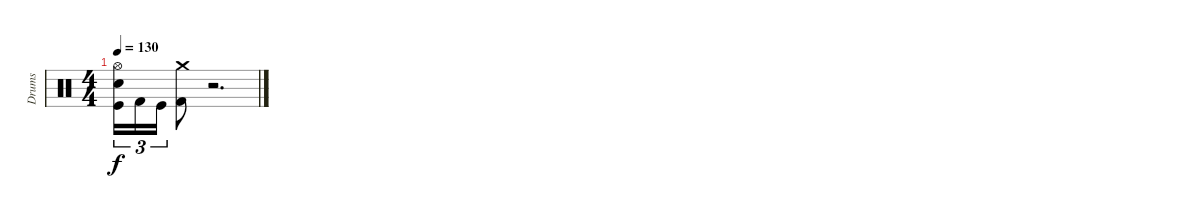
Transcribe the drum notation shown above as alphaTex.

\track ("Drums" "Drums") {instrument percussion}
\staff {score}
\articulation defaults
\ts (4 4)
\tempo 130
\clef neutral
\ks c
("Hi-Hat (open)" "Electric Snare (hit)" "Kick (hit)").16{tu (3 2) dy f} "Kick (hit) 2".16{tu (3 2)} "Kick (hit)".16{tu (3 2)} ("Crash medium (hit)" "Kick (hit) 2").8 r.2{d}
